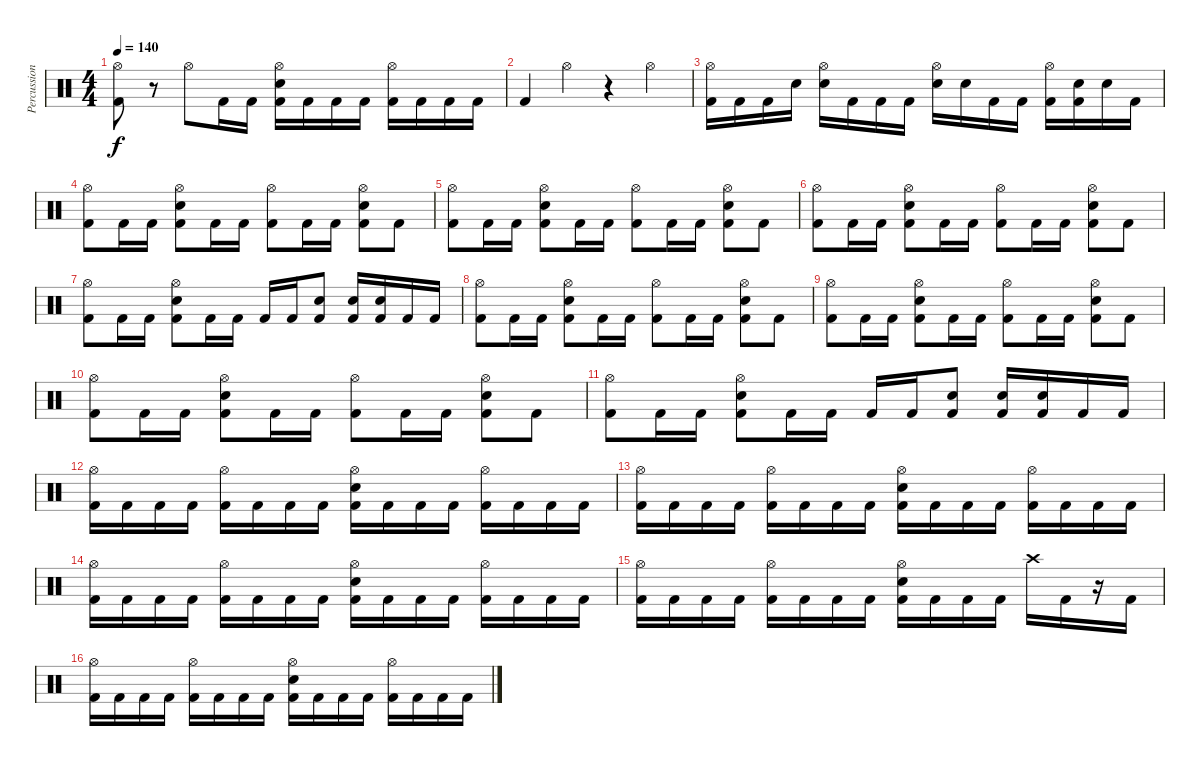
\track ("Percussion" "Percussion") {instrument percussion}
\staff {score}
\articulation defaults
\ts (4 4)
\tempo 140
\clef neutral
\ks c
("Hi-Hat (open)" "Kick (hit) 2").8{dy f} r.8 "Hi-Hat (open)".8 "Kick (hit) 2".16 "Kick (hit) 2".16 ("Hi-Hat (open)" "Snare (hit) 2" "Kick (hit) 2").16 "Kick (hit) 2".16 "Kick (hit) 2".16 "Kick (hit) 2".16 ("Hi-Hat (open)" "Kick (hit) 2").16 "Kick (hit) 2".16 "Kick (hit) 2".16 "Kick (hit) 2".16 |
"Kick (hit) 2".4 "Hi-Hat (open)".4 r.4 "Hi-Hat (open)".4 |
("Hi-Hat (open)" "Kick (hit) 2").16 "Kick (hit) 2".16 "Kick (hit) 2".16 "Snare (hit) 2".16 ("Hi-Hat (open)" "Snare (hit) 2").16 "Kick (hit) 2".16 "Kick (hit) 2".16 "Kick (hit) 2".16 ("Hi-Hat (open)" "Snare (hit) 2").16 "Snare (hit) 2".16 "Kick (hit) 2".16 "Kick (hit) 2".16 ("Hi-Hat (open)" "Kick (hit) 2").16 ("Snare (hit) 2" "Kick (hit) 2").16 "Snare (hit) 2".16 "Kick (hit) 2".16 |
("Hi-Hat (open)" "Kick (hit) 2").8 "Kick (hit) 2".16 "Kick (hit) 2".16 ("Hi-Hat (open)" "Snare (hit) 2" "Kick (hit) 2").8 "Kick (hit) 2".16 "Kick (hit) 2".16 ("Hi-Hat (open)" "Kick (hit) 2").8 "Kick (hit) 2".16 "Kick (hit) 2".16 ("Hi-Hat (open)" "Snare (hit) 2" "Kick (hit) 2").8 "Kick (hit) 2".8 |
("Hi-Hat (open)" "Kick (hit) 2").8 "Kick (hit) 2".16 "Kick (hit) 2".16 ("Hi-Hat (open)" "Snare (hit) 2" "Kick (hit) 2").8 "Kick (hit) 2".16 "Kick (hit) 2".16 ("Hi-Hat (open)" "Kick (hit) 2").8 "Kick (hit) 2".16 "Kick (hit) 2".16 ("Hi-Hat (open)" "Snare (hit) 2" "Kick (hit) 2").8 "Kick (hit) 2".8 |
("Hi-Hat (open)" "Kick (hit) 2").8 "Kick (hit) 2".16 "Kick (hit) 2".16 ("Hi-Hat (open)" "Snare (hit) 2" "Kick (hit) 2").8 "Kick (hit) 2".16 "Kick (hit) 2".16 ("Hi-Hat (open)" "Kick (hit) 2").8 "Kick (hit) 2".16 "Kick (hit) 2".16 ("Hi-Hat (open)" "Snare (hit) 2" "Kick (hit) 2").8 "Kick (hit) 2".8 |
("Hi-Hat (open)" "Kick (hit) 2").8 "Kick (hit) 2".16 "Kick (hit) 2".16 ("Hi-Hat (open)" "Snare (hit) 2" "Kick (hit) 2").8 "Kick (hit) 2".16 "Kick (hit) 2".16 "Kick (hit) 2".16 "Kick (hit) 2".16 ("Snare (hit) 2" "Kick (hit) 2").8 ("Snare (hit) 2" "Kick (hit) 2").16 ("Snare (hit) 2" "Kick (hit) 2").16 "Kick (hit) 2".16 "Kick (hit) 2".16 |
("Hi-Hat (open)" "Kick (hit) 2").8 "Kick (hit) 2".16 "Kick (hit) 2".16 ("Hi-Hat (open)" "Snare (hit) 2" "Kick (hit) 2").8 "Kick (hit) 2".16 "Kick (hit) 2".16 ("Hi-Hat (open)" "Kick (hit) 2").8 "Kick (hit) 2".16 "Kick (hit) 2".16 ("Hi-Hat (open)" "Snare (hit) 2" "Kick (hit) 2").8 "Kick (hit) 2".8 |
("Hi-Hat (open)" "Kick (hit) 2").8 "Kick (hit) 2".16 "Kick (hit) 2".16 ("Hi-Hat (open)" "Snare (hit) 2" "Kick (hit) 2").8 "Kick (hit) 2".16 "Kick (hit) 2".16 ("Hi-Hat (open)" "Kick (hit) 2").8 "Kick (hit) 2".16 "Kick (hit) 2".16 ("Hi-Hat (open)" "Snare (hit) 2" "Kick (hit) 2").8 "Kick (hit) 2".8 |
("Hi-Hat (open)" "Kick (hit) 2").8 "Kick (hit) 2".16 "Kick (hit) 2".16 ("Hi-Hat (open)" "Snare (hit) 2" "Kick (hit) 2").8 "Kick (hit) 2".16 "Kick (hit) 2".16 ("Hi-Hat (open)" "Kick (hit) 2").8 "Kick (hit) 2".16 "Kick (hit) 2".16 ("Hi-Hat (open)" "Snare (hit) 2" "Kick (hit) 2").8 "Kick (hit) 2".8 |
("Hi-Hat (open)" "Kick (hit) 2").8 "Kick (hit) 2".16 "Kick (hit) 2".16 ("Hi-Hat (open)" "Snare (hit) 2" "Kick (hit) 2").8 "Kick (hit) 2".16 "Kick (hit) 2".16 "Kick (hit) 2".16 "Kick (hit) 2".16 ("Snare (hit) 2" "Kick (hit) 2").8 ("Snare (hit) 2" "Kick (hit) 2").16 ("Snare (hit) 2" "Kick (hit) 2").16 "Kick (hit) 2".16 "Kick (hit) 2".16 |
("Hi-Hat (open)" "Kick (hit) 2").16 "Kick (hit) 2".16 "Kick (hit) 2".16 "Kick (hit) 2".16 ("Hi-Hat (open)" "Kick (hit) 2").16 "Kick (hit) 2".16 "Kick (hit) 2".16 "Kick (hit) 2".16 ("Hi-Hat (open)" "Snare (hit) 2" "Kick (hit) 2").16 "Kick (hit) 2".16 "Kick (hit) 2".16 "Kick (hit) 2".16 ("Hi-Hat (open)" "Kick (hit) 2").16 "Kick (hit) 2".16 "Kick (hit) 2".16 "Kick (hit) 2".16 |
("Hi-Hat (open)" "Kick (hit) 2").16 "Kick (hit) 2".16 "Kick (hit) 2".16 "Kick (hit) 2".16 ("Hi-Hat (open)" "Kick (hit) 2").16 "Kick (hit) 2".16 "Kick (hit) 2".16 "Kick (hit) 2".16 ("Hi-Hat (open)" "Snare (hit) 2" "Kick (hit) 2").16 "Kick (hit) 2".16 "Kick (hit) 2".16 "Kick (hit) 2".16 ("Hi-Hat (open)" "Kick (hit) 2").16 "Kick (hit) 2".16 "Kick (hit) 2".16 "Kick (hit) 2".16 |
("Hi-Hat (open)" "Kick (hit) 2").16 "Kick (hit) 2".16 "Kick (hit) 2".16 "Kick (hit) 2".16 ("Hi-Hat (open)" "Kick (hit) 2").16 "Kick (hit) 2".16 "Kick (hit) 2".16 "Kick (hit) 2".16 ("Hi-Hat (open)" "Snare (hit) 2" "Kick (hit) 2").16 "Kick (hit) 2".16 "Kick (hit) 2".16 "Kick (hit) 2".16 ("Hi-Hat (open)" "Kick (hit) 2").16 "Kick (hit) 2".16 "Kick (hit) 2".16 "Kick (hit) 2".16 |
("Hi-Hat (open)" "Kick (hit) 2").16 "Kick (hit) 2".16 "Kick (hit) 2".16 "Kick (hit) 2".16 ("Hi-Hat (open)" "Kick (hit) 2").16 "Kick (hit) 2".16 "Kick (hit) 2".16 "Kick (hit) 2".16 ("Hi-Hat (open)" "Snare (hit) 2" "Kick (hit) 2").16 "Kick (hit) 2".16 "Kick (hit) 2".16 "Kick (hit) 2".16 "Crash high (hit)".16 "Kick (hit) 2".16 r.16 "Kick (hit) 2".16 |
("Hi-Hat (open)" "Kick (hit) 2").16 "Kick (hit) 2".16 "Kick (hit) 2".16 "Kick (hit) 2".16 ("Hi-Hat (open)" "Kick (hit) 2").16 "Kick (hit) 2".16 "Kick (hit) 2".16 "Kick (hit) 2".16 ("Hi-Hat (open)" "Snare (hit) 2" "Kick (hit) 2").16 "Kick (hit) 2".16 "Kick (hit) 2".16 "Kick (hit) 2".16 ("Hi-Hat (open)" "Kick (hit) 2").16 "Kick (hit) 2".16 "Kick (hit) 2".16 "Kick (hit) 2".16
